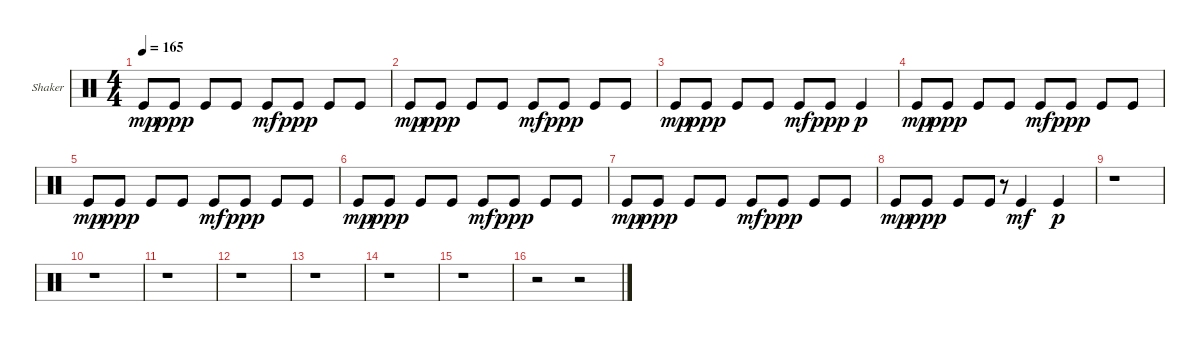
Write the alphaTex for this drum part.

\defaultSystemsLayout 4
\bracketExtendMode groupsimilarinstruments
\firstSystemTrackNameOrientation horizontal
\otherSystemsTrackNameOrientation horizontal
\track ("Shaker" "Shaker") {instrument percussion}
\staff {score}
\articulation defaults
\ts (4 4)
\tempo 165
\clef neutral
\ks c "Kick (hit)".8{dy mp} "Kick (hit)".8{dy ppp} "Kick (hit)".8 "Kick (hit)".8 "Kick (hit)".8{dy mf} "Kick (hit)".8{dy ppp} "Kick (hit)".8 "Kick (hit)".8
|
"Kick (hit)".8{dy mp} "Kick (hit)".8{dy ppp} "Kick (hit)".8 "Kick (hit)".8 "Kick (hit)".8{dy mf} "Kick (hit)".8{dy ppp} "Kick (hit)".8 "Kick (hit)".8 |
"Kick (hit)".8{dy mp} "Kick (hit)".8{dy ppp} "Kick (hit)".8 "Kick (hit)".8 "Kick (hit)".8{dy mf} "Kick (hit)".8{dy ppp} "Kick (hit)".4{dy p} |
"Kick (hit)".8{dy mp} "Kick (hit)".8{dy ppp} "Kick (hit)".8 "Kick (hit)".8 "Kick (hit)".8{dy mf} "Kick (hit)".8{dy ppp} "Kick (hit)".8 "Kick (hit)".8 |
"Kick (hit)".8{dy mp} "Kick (hit)".8{dy ppp} "Kick (hit)".8 "Kick (hit)".8 "Kick (hit)".8{dy mf} "Kick (hit)".8{dy ppp} "Kick (hit)".8 "Kick (hit)".8 |
"Kick (hit)".8{dy mp} "Kick (hit)".8{dy ppp} "Kick (hit)".8 "Kick (hit)".8 "Kick (hit)".8{dy mf} "Kick (hit)".8{dy ppp} "Kick (hit)".8 "Kick (hit)".8 |
"Kick (hit)".8{dy mp} "Kick (hit)".8{dy ppp} "Kick (hit)".8 "Kick (hit)".8 "Kick (hit)".8{dy mf} "Kick (hit)".8{dy ppp} "Kick (hit)".8 "Kick (hit)".8 |
"Kick (hit)".8{dy mp} "Kick (hit)".8{dy ppp} "Kick (hit)".8 "Kick (hit)".8 r.8{gr} "Kick (hit)".4{dy mf} "Kick (hit)".4{dy p} |
r.1 |
r.1 |
r.1 |
r.1 |
r.1 |
r.1 |
r.1 |
r.2 r.2
